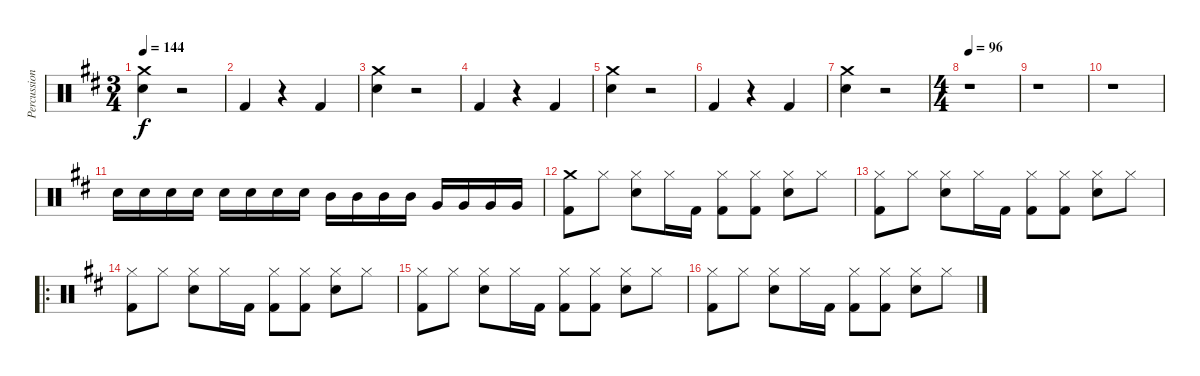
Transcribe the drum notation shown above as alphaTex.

\track ("Percussion" "Percussion") {instrument percussion}
\staff {score}
\articulation defaults
\ts (3 4)
\tempo 144
\clef neutral
\ks d
("Crash medium (hit)" "Snare (hit) 2").4{dy f} r.2 |
"Kick (hit) 2".4 r.4 "Kick (hit) 2".4 |
("Crash medium (hit)" "Snare (hit) 2").4 r.2 |
"Kick (hit) 2".4 r.4 "Kick (hit) 2".4 |
("Crash medium (hit)" "Snare (hit) 2").4 r.2 |
"Kick (hit) 2".4 r.4 "Kick (hit) 2".4 |
("Crash medium (hit)" "Snare (hit) 2").4 r.2 |
\ts (4 4)
\tempo 96
r.1 |
r.1 |
r.1 |
"Snare (hit) 2".16{volume 3} "Snare (hit) 2".16{volume 13} "Snare (hit) 2".16 "Snare (hit) 2".16 "Snare (hit) 2".16 "Snare (hit) 2".16 "Snare (hit) 2".16 "Snare (hit) 2".16 "Mid Tom (hit)".16 "Mid Tom (hit)".16 "Mid Tom (hit)".16 "Mid Tom (hit)".16 "Very Low Tom (hit)".16 "Very Low Tom (hit)".16 "Very Low Tom (hit)".16 "Very Low Tom (hit)".16 |
("Crash medium (hit)" "Kick (hit) 2").8 "Hi-Hat (closed)".8 ("Hi-Hat (closed)" "Snare (hit) 2").8 "Hi-Hat (closed)".16 "Kick (hit) 2".16 ("Hi-Hat (closed)" "Kick (hit) 2").8 ("Hi-Hat (closed)" "Kick (hit) 2").8 ("Hi-Hat (closed)" "Snare (hit) 2").8 "Hi-Hat (closed)".8 |
("Hi-Hat (closed)" "Kick (hit) 2").8 "Hi-Hat (closed)".8 ("Hi-Hat (closed)" "Snare (hit) 2").8 "Hi-Hat (closed)".16 "Kick (hit) 2".16 ("Hi-Hat (closed)" "Kick (hit) 2").8 ("Hi-Hat (closed)" "Kick (hit) 2").8 ("Hi-Hat (closed)" "Snare (hit) 2").8 "Hi-Hat (closed)".8 |
\ro
("Hi-Hat (closed)" "Kick (hit) 2").8 "Hi-Hat (closed)".8 ("Hi-Hat (closed)" "Snare (hit) 2").8 "Hi-Hat (closed)".16 "Kick (hit) 2".16 ("Hi-Hat (closed)" "Kick (hit) 2").8 ("Hi-Hat (closed)" "Kick (hit) 2").8 ("Hi-Hat (closed)" "Snare (hit) 2").8 "Hi-Hat (closed)".8 |
("Hi-Hat (closed)" "Kick (hit) 2").8 "Hi-Hat (closed)".8 ("Hi-Hat (closed)" "Snare (hit) 2").8 "Hi-Hat (closed)".16 "Kick (hit) 2".16 ("Hi-Hat (closed)" "Kick (hit) 2").8 ("Hi-Hat (closed)" "Kick (hit) 2").8 ("Hi-Hat (closed)" "Snare (hit) 2").8 "Hi-Hat (closed)".8 |
("Hi-Hat (closed)" "Kick (hit) 2").8 "Hi-Hat (closed)".8 ("Hi-Hat (closed)" "Snare (hit) 2").8 "Hi-Hat (closed)".16 "Kick (hit) 2".16 ("Hi-Hat (closed)" "Kick (hit) 2").8 ("Hi-Hat (closed)" "Kick (hit) 2").8 ("Hi-Hat (closed)" "Snare (hit) 2").8 "Hi-Hat (closed)".8
